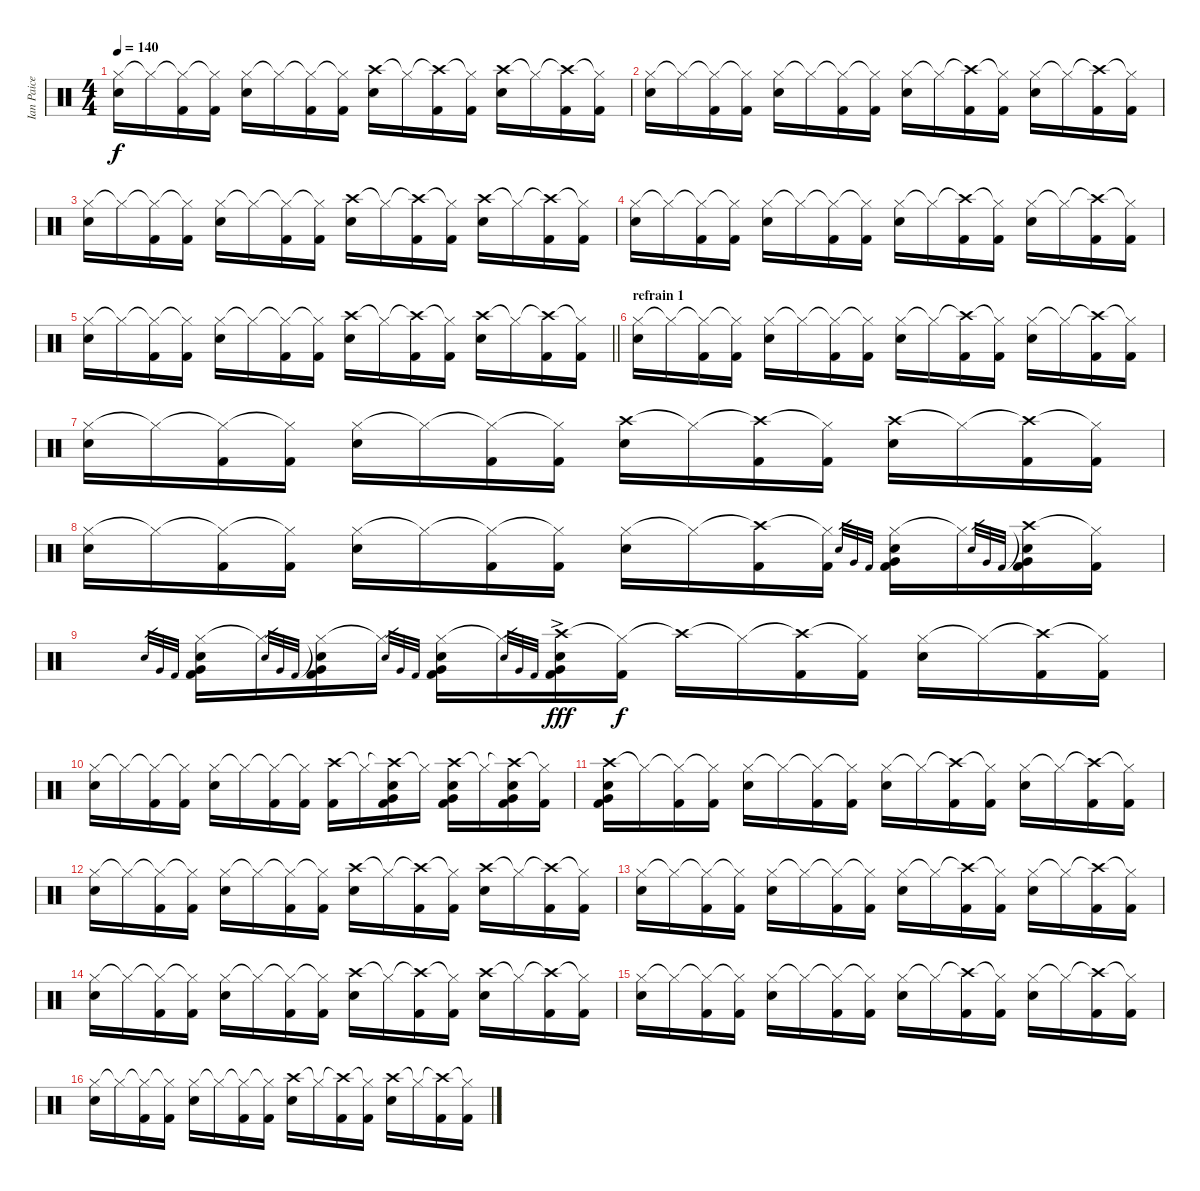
\track ("Ian Paice" "Ian Paice") {instrument percussion}
\staff {score}
\articulation defaults
\ts (4 4)
\tempo 140
\clef neutral
\ks c
("Hi-Hat (closed)" "Snare (hit) 2").16{dy f} "Hi-Hat (closed)"{t}.16 ("Hi-Hat (closed)"{t} "Kick (hit) 2").16 ("Hi-Hat (closed)"{t} "Kick (hit) 2").16 ("Hi-Hat (closed)" "Snare (hit) 2").16 "Hi-Hat (closed)"{t}.16 ("Hi-Hat (closed)"{t} "Kick (hit) 2").16 ("Hi-Hat (closed)"{t} "Kick (hit) 2").16 ("Crash high (hit)" "Snare (hit) 2").16 "Hi-Hat (closed)"{t}.16 ("Crash high (hit)"{t} "Kick (hit) 2").16 ("Hi-Hat (closed)"{t} "Kick (hit) 2").16 ("Crash high (hit)" "Snare (hit) 2").16 "Hi-Hat (closed)"{t}.16 ("Crash high (hit)"{t} "Kick (hit) 2").16 ("Hi-Hat (closed)"{t} "Kick (hit) 2").16 |
("Hi-Hat (closed)" "Snare (hit) 2").16 "Hi-Hat (closed)"{t}.16 ("Hi-Hat (closed)"{t} "Kick (hit) 2").16 ("Hi-Hat (closed)"{t} "Kick (hit) 2").16 ("Hi-Hat (closed)" "Snare (hit) 2").16 "Hi-Hat (closed)"{t}.16 ("Hi-Hat (closed)"{t} "Kick (hit) 2").16 ("Hi-Hat (closed)"{t} "Kick (hit) 2").16 ("Hi-Hat (closed)" "Snare (hit) 2").16 "Hi-Hat (closed)"{t}.16 ("Crash high (hit)"{t} "Kick (hit) 2").16 ("Hi-Hat (closed)"{t} "Kick (hit) 2").16 ("Hi-Hat (closed)" "Snare (hit) 2").16 "Hi-Hat (closed)"{t}.16 ("Crash high (hit)"{t} "Kick (hit) 2").16 ("Hi-Hat (closed)"{t} "Kick (hit) 2").16 |
("Hi-Hat (closed)" "Snare (hit) 2").16 "Hi-Hat (closed)"{t}.16 ("Hi-Hat (closed)"{t} "Kick (hit) 2").16 ("Hi-Hat (closed)"{t} "Kick (hit) 2").16 ("Hi-Hat (closed)" "Snare (hit) 2").16 "Hi-Hat (closed)"{t}.16 ("Hi-Hat (closed)"{t} "Kick (hit) 2").16 ("Hi-Hat (closed)"{t} "Kick (hit) 2").16 ("Crash high (hit)" "Snare (hit) 2").16 "Hi-Hat (closed)"{t}.16 ("Crash high (hit)"{t} "Kick (hit) 2").16 ("Hi-Hat (closed)"{t} "Kick (hit) 2").16 ("Crash high (hit)" "Snare (hit) 2").16 "Hi-Hat (closed)"{t}.16 ("Crash high (hit)"{t} "Kick (hit) 2").16 ("Hi-Hat (closed)"{t} "Kick (hit) 2").16 |
("Hi-Hat (closed)" "Snare (hit) 2").16 "Hi-Hat (closed)"{t}.16 ("Hi-Hat (closed)"{t} "Kick (hit) 2").16 ("Hi-Hat (closed)"{t} "Kick (hit) 2").16 ("Hi-Hat (closed)" "Snare (hit) 2").16 "Hi-Hat (closed)"{t}.16 ("Hi-Hat (closed)"{t} "Kick (hit) 2").16 ("Hi-Hat (closed)"{t} "Kick (hit) 2").16 ("Hi-Hat (closed)" "Snare (hit) 2").16 "Hi-Hat (closed)"{t}.16 ("Crash high (hit)"{t} "Kick (hit) 2").16 ("Hi-Hat (closed)"{t} "Kick (hit) 2").16 ("Hi-Hat (closed)" "Snare (hit) 2").16 "Hi-Hat (closed)"{t}.16 ("Crash high (hit)"{t} "Kick (hit) 2").16 ("Hi-Hat (closed)"{t} "Kick (hit) 2").16 |
\barLineRight lightlight
("Hi-Hat (closed)" "Snare (hit) 2").16 "Hi-Hat (closed)"{t}.16 ("Hi-Hat (closed)"{t} "Kick (hit) 2").16 ("Hi-Hat (closed)"{t} "Kick (hit) 2").16 ("Hi-Hat (closed)" "Snare (hit) 2").16 "Hi-Hat (closed)"{t}.16 ("Hi-Hat (closed)"{t} "Kick (hit) 2").16 ("Hi-Hat (closed)"{t} "Kick (hit) 2").16 ("Crash high (hit)" "Snare (hit) 2").16 "Hi-Hat (closed)"{t}.16 ("Crash high (hit)"{t} "Kick (hit) 2").16 ("Hi-Hat (closed)"{t} "Kick (hit) 2").16 ("Crash high (hit)" "Snare (hit) 2").16 "Hi-Hat (closed)"{t}.16 ("Crash high (hit)"{t} "Kick (hit) 2").16 ("Hi-Hat (closed)"{t} "Kick (hit) 2").16 |
\section ("" "refrain 1")
("Hi-Hat (closed)" "Snare (hit) 2").16 "Hi-Hat (closed)"{t}.16 ("Hi-Hat (closed)"{t} "Kick (hit) 2").16 ("Hi-Hat (closed)"{t} "Kick (hit) 2").16 ("Hi-Hat (closed)" "Snare (hit) 2").16 "Hi-Hat (closed)"{t}.16 ("Hi-Hat (closed)"{t} "Kick (hit) 2").16 ("Hi-Hat (closed)"{t} "Kick (hit) 2").16 ("Hi-Hat (closed)" "Snare (hit) 2").16 "Hi-Hat (closed)"{t}.16 ("Crash high (hit)"{t} "Kick (hit) 2").16 ("Hi-Hat (closed)"{t} "Kick (hit) 2").16 ("Hi-Hat (closed)" "Snare (hit) 2").16 "Hi-Hat (closed)"{t}.16 ("Crash high (hit)"{t} "Kick (hit) 2").16 ("Hi-Hat (closed)"{t} "Kick (hit) 2").16 |
("Hi-Hat (closed)" "Snare (hit) 2").16 "Hi-Hat (closed)"{t}.16 ("Hi-Hat (closed)"{t} "Kick (hit) 2").16 ("Hi-Hat (closed)"{t} "Kick (hit) 2").16 ("Hi-Hat (closed)" "Snare (hit) 2").16 "Hi-Hat (closed)"{t}.16 ("Hi-Hat (closed)"{t} "Kick (hit) 2").16 ("Hi-Hat (closed)"{t} "Kick (hit) 2").16 ("Crash high (hit)" "Snare (hit) 2").16 "Hi-Hat (closed)"{t}.16 ("Crash high (hit)"{t} "Kick (hit) 2").16 ("Hi-Hat (closed)"{t} "Kick (hit) 2").16 ("Crash high (hit)" "Snare (hit) 2").16 "Hi-Hat (closed)"{t}.16 ("Crash high (hit)"{t} "Kick (hit) 2").16 ("Hi-Hat (closed)"{t} "Kick (hit) 2").16 |
("Hi-Hat (closed)" "Snare (hit) 2").16 "Hi-Hat (closed)"{t}.16 ("Hi-Hat (closed)"{t} "Kick (hit) 2").16 ("Hi-Hat (closed)"{t} "Kick (hit) 2").16 ("Hi-Hat (closed)" "Snare (hit) 2").16 "Hi-Hat (closed)"{t}.16 ("Hi-Hat (closed)"{t} "Kick (hit) 2").16 ("Hi-Hat (closed)"{t} "Kick (hit) 2").16 ("Hi-Hat (closed)" "Snare (hit) 2").16 "Hi-Hat (closed)"{t}.16 ("Crash high (hit)"{t} "Kick (hit) 2").16 ("Hi-Hat (closed)"{t} "Kick (hit) 2").16 "Snare (hit) 2".32{gr} "Very Low Tom (hit)".32{gr} "Kick (hit) 2".32{gr} ("Hi-Hat (closed)" "Snare (hit) 2" "Very Low Tom (hit)" "Kick (hit) 2").16 "Hi-Hat (closed)"{t}.16 "Snare (hit) 2".32{gr} "Very Low Tom (hit)".32{gr} "Kick (hit) 2".32{gr} ("Crash high (hit)"{t} "Snare (hit) 2" "Very Low Tom (hit)" "Kick (hit) 2").16 ("Hi-Hat (closed)"{t} "Kick (hit) 2").16 |
"Snare (hit) 2".32{gr} "Very Low Tom (hit)".32{gr} "Kick (hit) 2".32{gr} ("Hi-Hat (closed)" "Snare (hit) 2" "Very Low Tom (hit)" "Kick (hit) 2").16 "Hi-Hat (closed)"{t}.16 "Snare (hit) 2".32{gr} "Very Low Tom (hit)".32{gr} "Kick (hit) 2".32{gr} ("Hi-Hat (closed)"{t} "Snare (hit) 2" "Very Low Tom (hit)" "Kick (hit) 2").16 "Hi-Hat (closed)"{t}.16 "Snare (hit) 2".32{gr} "Very Low Tom (hit)".32{gr} "Kick (hit) 2".32{gr} ("Hi-Hat (closed)" "Snare (hit) 2" "Very Low Tom (hit)" "Kick (hit) 2").16 "Hi-Hat (closed)"{t}.16 "Snare (hit) 2".32{gr} "Very Low Tom (hit)".32{gr} "Kick (hit) 2".32{gr} ("Crash high (hit)"{ac} "Snare (hit) 2" "Very Low Tom (hit)" "Kick (hit) 2").16{dy fff} ("Hi-Hat (closed)"{t} "Kick (hit) 2").16{dy f} "Crash high (hit)"{t}.16 "Hi-Hat (closed)"{t}.16 ("Crash high (hit)"{t} "Kick (hit) 2").16 ("Hi-Hat (closed)"{t} "Kick (hit) 2").16 ("Hi-Hat (closed)" "Snare (hit) 2").16 "Hi-Hat (closed)"{t}.16 ("Crash high (hit)"{t} "Kick (hit) 2").16 ("Hi-Hat (closed)"{t} "Kick (hit) 2").16 |
("Hi-Hat (closed)" "Snare (hit) 2").16 "Hi-Hat (closed)"{t}.16 ("Hi-Hat (closed)"{t} "Kick (hit) 2").16 ("Hi-Hat (closed)"{t} "Kick (hit) 2").16 ("Hi-Hat (closed)" "Snare (hit) 2").16 "Hi-Hat (closed)"{t}.16 ("Hi-Hat (closed)"{t} "Kick (hit) 2").16 ("Hi-Hat (closed)"{t} "Kick (hit) 2").16 ("Crash high (hit)" "Kick (hit) 2").16 "Hi-Hat (closed)"{t}.16 ("Crash high (hit)"{t} "Snare (hit) 2" "Very Low Tom (hit)" "Kick (hit) 2").16 "Hi-Hat (closed)"{t}.16 ("Crash high (hit)" "Snare (hit) 2" "Very Low Tom (hit)" "Kick (hit) 2").16 "Hi-Hat (closed)"{t}.16 ("Crash high (hit)"{t} "Snare (hit) 2" "Very Low Tom (hit)" "Kick (hit) 2").16 ("Hi-Hat (closed)"{t} "Kick (hit) 2").16 |
("Crash high (hit)" "Snare (hit) 2" "Very Low Tom (hit)" "Kick (hit) 2").16 "Hi-Hat (closed)"{t}.16 ("Hi-Hat (closed)"{t} "Kick (hit) 2").16 ("Hi-Hat (closed)"{t} "Kick (hit) 2").16 ("Hi-Hat (closed)" "Snare (hit) 2").16 "Hi-Hat (closed)"{t}.16 ("Hi-Hat (closed)"{t} "Kick (hit) 2").16 ("Hi-Hat (closed)"{t} "Kick (hit) 2").16 ("Hi-Hat (closed)" "Snare (hit) 2").16 "Hi-Hat (closed)"{t}.16 ("Crash high (hit)"{t} "Kick (hit) 2").16 ("Hi-Hat (closed)"{t} "Kick (hit) 2").16 ("Hi-Hat (closed)" "Snare (hit) 2").16 "Hi-Hat (closed)"{t}.16 ("Crash high (hit)"{t} "Kick (hit) 2").16 ("Hi-Hat (closed)"{t} "Kick (hit) 2").16 |
("Hi-Hat (closed)" "Snare (hit) 2").16 "Hi-Hat (closed)"{t}.16 ("Hi-Hat (closed)"{t} "Kick (hit) 2").16 ("Hi-Hat (closed)"{t} "Kick (hit) 2").16 ("Hi-Hat (closed)" "Snare (hit) 2").16 "Hi-Hat (closed)"{t}.16 ("Hi-Hat (closed)"{t} "Kick (hit) 2").16 ("Hi-Hat (closed)"{t} "Kick (hit) 2").16 ("Crash high (hit)" "Snare (hit) 2").16 "Hi-Hat (closed)"{t}.16 ("Crash high (hit)"{t} "Kick (hit) 2").16 ("Hi-Hat (closed)"{t} "Kick (hit) 2").16 ("Crash high (hit)" "Snare (hit) 2").16 "Hi-Hat (closed)"{t}.16 ("Crash high (hit)"{t} "Kick (hit) 2").16 ("Hi-Hat (closed)"{t} "Kick (hit) 2").16 |
("Hi-Hat (closed)" "Snare (hit) 2").16 "Hi-Hat (closed)"{t}.16 ("Hi-Hat (closed)"{t} "Kick (hit) 2").16 ("Hi-Hat (closed)"{t} "Kick (hit) 2").16 ("Hi-Hat (closed)" "Snare (hit) 2").16 "Hi-Hat (closed)"{t}.16 ("Hi-Hat (closed)"{t} "Kick (hit) 2").16 ("Hi-Hat (closed)"{t} "Kick (hit) 2").16 ("Hi-Hat (closed)" "Snare (hit) 2").16 "Hi-Hat (closed)"{t}.16 ("Crash high (hit)"{t} "Kick (hit) 2").16 ("Hi-Hat (closed)"{t} "Kick (hit) 2").16 ("Hi-Hat (closed)" "Snare (hit) 2").16 "Hi-Hat (closed)"{t}.16 ("Crash high (hit)"{t} "Kick (hit) 2").16 ("Hi-Hat (closed)"{t} "Kick (hit) 2").16 |
("Hi-Hat (closed)" "Snare (hit) 2").16 "Hi-Hat (closed)"{t}.16 ("Hi-Hat (closed)"{t} "Kick (hit) 2").16 ("Hi-Hat (closed)"{t} "Kick (hit) 2").16 ("Hi-Hat (closed)" "Snare (hit) 2").16 "Hi-Hat (closed)"{t}.16 ("Hi-Hat (closed)"{t} "Kick (hit) 2").16 ("Hi-Hat (closed)"{t} "Kick (hit) 2").16 ("Crash high (hit)" "Snare (hit) 2").16 "Hi-Hat (closed)"{t}.16 ("Crash high (hit)"{t} "Kick (hit) 2").16 ("Hi-Hat (closed)"{t} "Kick (hit) 2").16 ("Crash high (hit)" "Snare (hit) 2").16 "Hi-Hat (closed)"{t}.16 ("Crash high (hit)"{t} "Kick (hit) 2").16 ("Hi-Hat (closed)"{t} "Kick (hit) 2").16 |
("Hi-Hat (closed)" "Snare (hit) 2").16 "Hi-Hat (closed)"{t}.16 ("Hi-Hat (closed)"{t} "Kick (hit) 2").16 ("Hi-Hat (closed)"{t} "Kick (hit) 2").16 ("Hi-Hat (closed)" "Snare (hit) 2").16 "Hi-Hat (closed)"{t}.16 ("Hi-Hat (closed)"{t} "Kick (hit) 2").16 ("Hi-Hat (closed)"{t} "Kick (hit) 2").16 ("Hi-Hat (closed)" "Snare (hit) 2").16 "Hi-Hat (closed)"{t}.16 ("Crash high (hit)"{t} "Kick (hit) 2").16 ("Hi-Hat (closed)"{t} "Kick (hit) 2").16 ("Hi-Hat (closed)" "Snare (hit) 2").16 "Hi-Hat (closed)"{t}.16 ("Crash high (hit)"{t} "Kick (hit) 2").16 ("Hi-Hat (closed)"{t} "Kick (hit) 2").16 |
("Hi-Hat (closed)" "Snare (hit) 2").16 "Hi-Hat (closed)"{t}.16 ("Hi-Hat (closed)"{t} "Kick (hit) 2").16 ("Hi-Hat (closed)"{t} "Kick (hit) 2").16 ("Hi-Hat (closed)" "Snare (hit) 2").16 "Hi-Hat (closed)"{t}.16 ("Hi-Hat (closed)"{t} "Kick (hit) 2").16 ("Hi-Hat (closed)"{t} "Kick (hit) 2").16 ("Crash high (hit)" "Snare (hit) 2").16 "Hi-Hat (closed)"{t}.16 ("Crash high (hit)"{t} "Kick (hit) 2").16 ("Hi-Hat (closed)"{t} "Kick (hit) 2").16 ("Crash high (hit)" "Snare (hit) 2").16 "Hi-Hat (closed)"{t}.16 ("Crash high (hit)"{t} "Kick (hit) 2").16 ("Hi-Hat (closed)"{t} "Kick (hit) 2").16
